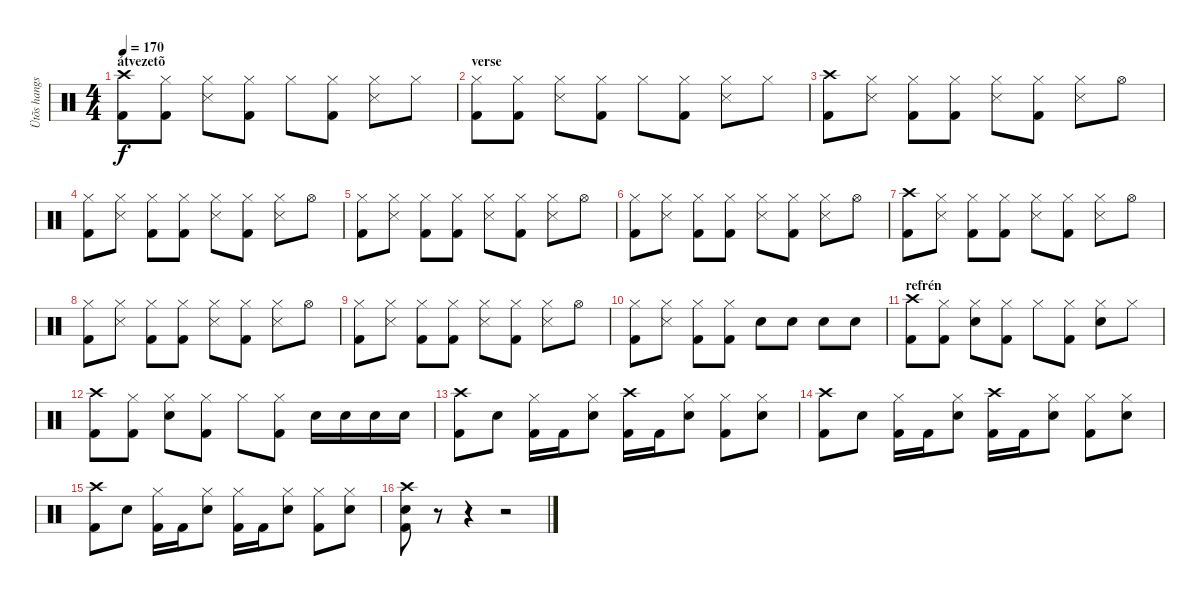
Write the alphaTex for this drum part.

\track ("Ütõs hangszer" "Ütõs hangs") {instrument percussion}
\staff {score}
\articulation defaults
\ts (4 4)
\section ("" "átvezetõ")
\tempo 170
\clef neutral
\ks c
("Crash high (hit)" "Kick (hit) 2").8{dy f} ("Hi-Hat (closed)" "Kick (hit) 2").8 ("Snare (side stick) 3" "Hi-Hat (closed)").8 ("Kick (hit) 2" "Hi-Hat (closed)").8 "Hi-Hat (closed)".8 ("Kick (hit) 2" "Hi-Hat (closed)").8 ("Snare (side stick) 3" "Hi-Hat (closed)").8 "Hi-Hat (closed)".8 |
\section ("" "verse")
("Hi-Hat (closed)" "Kick (hit) 2").8 ("Hi-Hat (closed)" "Kick (hit) 2").8 ("Snare (side stick) 3" "Hi-Hat (closed)").8 ("Kick (hit) 2" "Hi-Hat (closed)").8 "Hi-Hat (closed)".8 ("Kick (hit) 2" "Hi-Hat (closed)").8 ("Snare (side stick) 3" "Hi-Hat (closed)").8 "Hi-Hat (closed)".8 |
("Crash high (hit)" "Kick (hit) 2").8 ("Hi-Hat (closed)" "Snare (side stick) 3").8 ("Hi-Hat (closed)" "Kick (hit) 2").8 ("Hi-Hat (closed)" "Kick (hit) 2").8 ("Hi-Hat (closed)" "Snare (side stick) 3").8 ("Hi-Hat (closed)" "Kick (hit) 2").8 ("Hi-Hat (closed)" "Snare (side stick) 3").8 "Hi-Hat (open)".8 |
("Hi-Hat (closed)" "Kick (hit) 2").8 ("Hi-Hat (closed)" "Snare (side stick) 3").8 ("Hi-Hat (closed)" "Kick (hit) 2").8 ("Hi-Hat (closed)" "Kick (hit) 2").8 ("Hi-Hat (closed)" "Snare (side stick) 3").8 ("Hi-Hat (closed)" "Kick (hit) 2").8 ("Hi-Hat (closed)" "Snare (side stick) 3").8 "Hi-Hat (open)".8 |
("Hi-Hat (closed)" "Kick (hit) 2").8 ("Hi-Hat (closed)" "Snare (side stick) 3").8 ("Hi-Hat (closed)" "Kick (hit) 2").8 ("Hi-Hat (closed)" "Kick (hit) 2").8 ("Hi-Hat (closed)" "Snare (side stick) 3").8 ("Hi-Hat (closed)" "Kick (hit) 2").8 ("Hi-Hat (closed)" "Snare (side stick) 3").8 "Hi-Hat (open)".8 |
("Hi-Hat (closed)" "Kick (hit) 2").8 ("Hi-Hat (closed)" "Snare (side stick) 3").8 ("Hi-Hat (closed)" "Kick (hit) 2").8 ("Hi-Hat (closed)" "Kick (hit) 2").8 ("Hi-Hat (closed)" "Snare (side stick) 3").8 ("Hi-Hat (closed)" "Kick (hit) 2").8 ("Hi-Hat (closed)" "Snare (side stick) 3").8 "Hi-Hat (open)".8 |
("Crash high (hit)" "Kick (hit) 2").8 ("Hi-Hat (closed)" "Snare (side stick) 3").8 ("Hi-Hat (closed)" "Kick (hit) 2").8 ("Hi-Hat (closed)" "Kick (hit) 2").8 ("Hi-Hat (closed)" "Snare (side stick) 3").8 ("Hi-Hat (closed)" "Kick (hit) 2").8 ("Hi-Hat (closed)" "Snare (side stick) 3").8 "Hi-Hat (open)".8 |
("Hi-Hat (closed)" "Kick (hit) 2").8 ("Hi-Hat (closed)" "Snare (side stick) 3").8 ("Hi-Hat (closed)" "Kick (hit) 2").8 ("Hi-Hat (closed)" "Kick (hit) 2").8 ("Hi-Hat (closed)" "Snare (side stick) 3").8 ("Hi-Hat (closed)" "Kick (hit) 2").8 ("Hi-Hat (closed)" "Snare (side stick) 3").8 "Hi-Hat (open)".8 |
("Hi-Hat (closed)" "Kick (hit) 2").8 ("Hi-Hat (closed)" "Snare (side stick) 3").8 ("Hi-Hat (closed)" "Kick (hit) 2").8 ("Hi-Hat (closed)" "Kick (hit) 2").8 ("Hi-Hat (closed)" "Snare (side stick) 3").8 ("Hi-Hat (closed)" "Kick (hit) 2").8 ("Hi-Hat (closed)" "Snare (side stick) 3").8 "Hi-Hat (open)".8 |
("Hi-Hat (closed)" "Kick (hit) 2").8 ("Hi-Hat (closed)" "Snare (side stick) 3").8 ("Hi-Hat (closed)" "Kick (hit) 2").8 ("Hi-Hat (closed)" "Kick (hit) 2").8 "Snare (hit) 2".8 "Snare (hit) 2".8 "Snare (hit) 2".8 "Snare (hit) 2".8 |
\section ("" "refrén")
("Crash high (hit)" "Kick (hit) 2").8 ("Hi-Hat (closed)" "Kick (hit) 2").8 ("Snare (hit) 2" "Hi-Hat (closed)").8 ("Kick (hit) 2" "Hi-Hat (closed)").8 "Hi-Hat (closed)".8 ("Kick (hit) 2" "Hi-Hat (closed)").8 ("Snare (hit) 2" "Hi-Hat (closed)").8 "Hi-Hat (closed)".8 |
("Crash high (hit)" "Kick (hit) 2").8 ("Kick (hit) 2" "Hi-Hat (closed)").8 ("Snare (hit) 2" "Hi-Hat (closed)").8 ("Kick (hit) 2" "Hi-Hat (closed)").8 "Hi-Hat (closed)".8 ("Kick (hit) 2" "Hi-Hat (closed)").8 "Snare (hit) 2".16 "Snare (hit) 2".16 "Snare (hit) 2".16 "Snare (hit) 2".16 |
("Crash high (hit)" "Kick (hit) 2").8 "Snare (hit) 2".8 ("Hi-Hat (closed)" "Kick (hit) 2").16 "Kick (hit) 2".16 ("Hi-Hat (closed)" "Snare (hit) 2").8 ("Crash high (hit)" "Kick (hit) 2").16 "Kick (hit) 2".16 ("Hi-Hat (closed)" "Snare (hit) 2").8 ("Hi-Hat (closed)" "Kick (hit) 2").8 ("Hi-Hat (closed)" "Snare (hit) 2").8 |
("Crash high (hit)" "Kick (hit) 2").8 "Snare (hit) 2".8 ("Hi-Hat (closed)" "Kick (hit) 2").16 "Kick (hit) 2".16 ("Hi-Hat (closed)" "Snare (hit) 2").8 ("Crash high (hit)" "Kick (hit) 2").16 "Kick (hit) 2".16 ("Hi-Hat (closed)" "Snare (hit) 2").8 ("Hi-Hat (closed)" "Kick (hit) 2").8 ("Hi-Hat (closed)" "Snare (hit) 2").8 |
("Crash high (hit)" "Kick (hit) 2").8 "Snare (hit) 2".8 ("Hi-Hat (closed)" "Kick (hit) 2").16 "Kick (hit) 2".16 ("Hi-Hat (closed)" "Snare (hit) 2").8 ("Hi-Hat (closed)" "Kick (hit) 2").16 "Kick (hit) 2".16 ("Hi-Hat (closed)" "Snare (hit) 2").8 ("Hi-Hat (closed)" "Kick (hit) 2").8 ("Hi-Hat (closed)" "Snare (hit) 2").8 |
("Snare (hit) 2" "Crash high (hit)" "Kick (hit) 2").8 r.8 r.4 r.2
